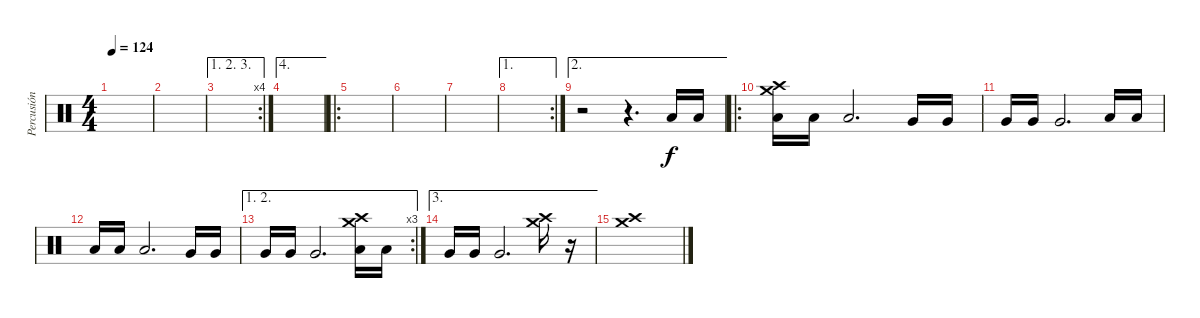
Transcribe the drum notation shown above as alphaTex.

\track ("Percusión" "Percusión") {instrument percussion bank 2}
\staff {score}
\articulation defaults
\ts (4 4)
\tempo 124
\clef neutral
\ks c
|
|
\ae (1 2 3)
\rc 4
|
\ae 4
|
\ro
|
|
|
\ae 1
\rc 2
|
\ae 2
r.2 r.4{d} "Low Floor Tom (hit)".16 "Low Floor Tom (hit)".16 |
\ro
("Low Floor Tom (hit)" "Crash high (hit)" "Crash medium (hit)").16 "Low Floor Tom (hit)".16 "Low Floor Tom (hit)".2{d} "Very Low Tom (hit)".16 "Very Low Tom (hit)".16 |
"Very Low Tom (hit)".16 "Very Low Tom (hit)".16 "Very Low Tom (hit)".2{d} "Low Floor Tom (hit)".16 "Low Floor Tom (hit)".16 |
"Low Floor Tom (hit)".16 "Low Floor Tom (hit)".16 "Low Floor Tom (hit)".2{d} "Very Low Tom (hit)".16 "Very Low Tom (hit)".16 |
\ae (1 2)
\rc 3 "Very Low Tom (hit)".16 "Very Low Tom (hit)".16 "Very Low Tom (hit)".2{d}
("Low Floor Tom (hit)" "Crash high (hit)" "Crash medium (hit)").16 "Low Floor Tom (hit)".16 |
\ae 3 "Very Low Tom (hit)".16 "Very Low Tom (hit)".16 "Very Low Tom (hit)".2{d}
("Crash high (hit)" "Crash medium (hit)").16 r.16 |
("Crash high (hit)" "Crash medium (hit)").1
